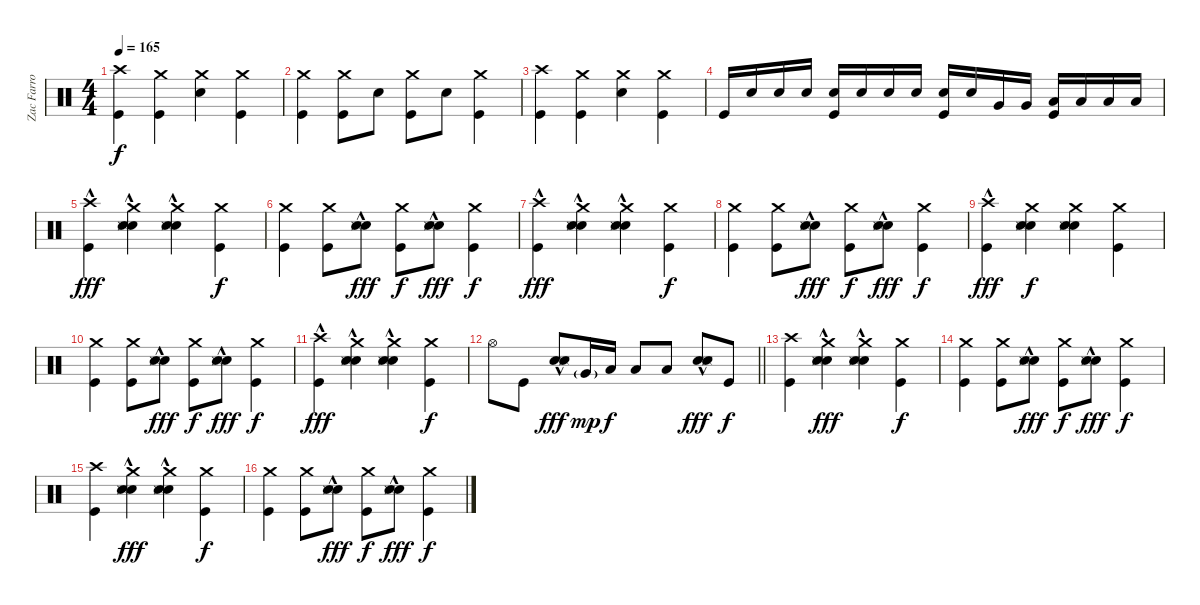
\track ("Zac Farro (Drums)" "Zac Farro ") {instrument percussion}
\staff {score}
\articulation defaults
\ts (4 4)
\tempo 165
\clef neutral
\ks c
("Crash high (hit)" "Kick (hit)").4{dy f} ("Crash medium (hit)" "Kick (hit)").4 ("Crash medium (hit)" "Electric Snare (hit)").4 ("Crash medium (hit)" "Kick (hit)").4 |
("Crash medium (hit)" "Kick (hit)").4 ("Crash medium (hit)" "Kick (hit)").8 "Electric Snare (hit)".8 ("Crash medium (hit)" "Kick (hit)").8 "Electric Snare (hit)".8 ("Crash medium (hit)" "Kick (hit)").4 |
("Crash high (hit)" "Kick (hit)").4 ("Crash medium (hit)" "Kick (hit)").4 ("Crash medium (hit)" "Electric Snare (hit)").4 ("Crash medium (hit)" "Kick (hit)").4 |
"Kick (hit)".16 "Electric Snare (hit)".16 "Electric Snare (hit)".16 "Electric Snare (hit)".16 ("Electric Snare (hit)" "Kick (hit)").16 "Electric Snare (hit)".16 "Electric Snare (hit)".16 "Electric Snare (hit)".16 ("Electric Snare (hit)" "Kick (hit)").16 "Electric Snare (hit)".16 "Very Low Tom (hit)".16 "Very Low Tom (hit)".16 ("Low Floor Tom (hit)" "Kick (hit)").16 "Low Floor Tom (hit)".16 "Low Floor Tom (hit)".16 "Low Floor Tom (hit)".16 |
("Crash high (hit)"{hac} "Kick (hit)"{hac}).4{dy fff} ("Crash medium (hit)"{hac} "Snare (hit) 2"{hac} "Snare (side stick) 3"{hac} "Electric Snare (hit)"{hac}).4 ("Crash medium (hit)"{hac} "Snare (hit) 2"{hac} "Snare (side stick) 3"{hac} "Electric Snare (hit)"{hac}).4 ("Crash medium (hit)" "Kick (hit)").4{dy f} |
("Crash medium (hit)" "Kick (hit)").4 ("Crash medium (hit)" "Kick (hit)").8 ("Snare (hit) 2"{hac} "Snare (side stick) 3"{hac} "Electric Snare (hit)"{hac}).8{dy fff} ("Crash medium (hit)" "Kick (hit)").8{dy f} ("Snare (hit) 2"{hac} "Snare (side stick) 3"{hac} "Electric Snare (hit)"{hac}).8{dy fff} ("Crash medium (hit)" "Kick (hit)").4{dy f} |
("Crash high (hit)"{hac} "Kick (hit)"{hac}).4{dy fff} ("Crash medium (hit)"{hac} "Snare (hit) 2"{hac} "Snare (side stick) 3"{hac} "Electric Snare (hit)"{hac}).4 ("Crash medium (hit)"{hac} "Snare (hit) 2"{hac} "Snare (side stick) 3"{hac} "Electric Snare (hit)"{hac}).4 ("Crash medium (hit)" "Kick (hit)").4{dy f} |
("Crash medium (hit)" "Kick (hit)").4 ("Crash medium (hit)" "Kick (hit)").8 ("Snare (hit) 2"{hac} "Snare (side stick) 3"{hac} "Electric Snare (hit)"{hac}).8{dy fff} ("Crash medium (hit)" "Kick (hit)").8{dy f} ("Snare (hit) 2"{hac} "Snare (side stick) 3"{hac} "Electric Snare (hit)"{hac}).8{dy fff} ("Crash medium (hit)" "Kick (hit)").4{dy f} |
("Crash high (hit)"{hac} "Kick (hit)"{hac}).4{dy fff} ("Crash medium (hit)" "Snare (hit) 2" "Snare (side stick) 3" "Electric Snare (hit)").4{dy f} ("Crash medium (hit)" "Snare (hit) 2" "Snare (side stick) 3" "Electric Snare (hit)").4 ("Crash medium (hit)" "Kick (hit)").4 |
("Crash medium (hit)" "Kick (hit)").4 ("Crash medium (hit)" "Kick (hit)").8 ("Snare (hit) 2"{hac} "Snare (side stick) 3"{hac} "Electric Snare (hit)"{hac}).8{dy fff} ("Crash medium (hit)" "Kick (hit)").8{dy f} ("Snare (hit) 2"{hac} "Snare (side stick) 3"{hac} "Electric Snare (hit)"{hac}).8{dy fff} ("Crash medium (hit)" "Kick (hit)").4{dy f} |
("Crash high (hit)"{hac} "Kick (hit)"{hac}).4{dy fff} ("Crash medium (hit)"{hac} "Snare (hit) 2"{hac} "Snare (side stick) 3"{hac} "Electric Snare (hit)"{hac}).4 ("Crash medium (hit)"{hac} "Snare (hit) 2"{hac} "Snare (side stick) 3"{hac} "Electric Snare (hit)"{hac}).4 ("Crash medium (hit)" "Kick (hit)").4{dy f} |
\barLineRight lightlight "Hi-Hat (open)".8 "Kick (hit)".8
("Snare (hit) 2"{hac} "Snare (side stick) 3"{hac} "Electric Snare (hit)"{hac}).8{dy fff} "Very Low Tom (hit)"{g}.16{dy mp} "Low Floor Tom (hit)".16{dy f} "Low Floor Tom (hit)".8 "Low Floor Tom (hit)".8 ("Snare (hit) 2"{hac} "Snare (side stick) 3"{hac} "Electric Snare (hit)"{hac}).8{dy fff} "Kick (hit)".8{dy f} |
\section ("" "")
("Crash high (hit)" "Kick (hit)").4 ("Crash medium (hit)"{hac} "Snare (hit) 2"{hac} "Snare (side stick) 3"{hac} "Electric Snare (hit)"{hac}).4{dy fff} ("Crash medium (hit)"{hac} "Snare (hit) 2"{hac} "Snare (side stick) 3"{hac} "Electric Snare (hit)"{hac}).4 ("Crash medium (hit)" "Kick (hit)").4{dy f} |
("Crash medium (hit)" "Kick (hit)").4 ("Crash medium (hit)" "Kick (hit)").8 ("Snare (hit) 2"{hac} "Snare (side stick) 3"{hac} "Electric Snare (hit)"{hac}).8{dy fff} ("Crash medium (hit)" "Kick (hit)").8{dy f} ("Snare (hit) 2"{hac} "Snare (side stick) 3"{hac} "Electric Snare (hit)"{hac}).8{dy fff} ("Crash medium (hit)" "Kick (hit)").4{dy f} |
("Crash high (hit)" "Kick (hit)").4 ("Crash medium (hit)"{hac} "Snare (hit) 2"{hac} "Snare (side stick) 3"{hac} "Electric Snare (hit)"{hac}).4{dy fff} ("Crash medium (hit)"{hac} "Snare (hit) 2"{hac} "Snare (side stick) 3"{hac} "Electric Snare (hit)"{hac}).4 ("Crash medium (hit)" "Kick (hit)").4{dy f} |
("Crash medium (hit)" "Kick (hit)").4 ("Crash medium (hit)" "Kick (hit)").8 ("Snare (hit) 2"{hac} "Snare (side stick) 3"{hac} "Electric Snare (hit)"{hac}).8{dy fff} ("Crash medium (hit)" "Kick (hit)").8{dy f} ("Snare (hit) 2"{hac} "Snare (side stick) 3"{hac} "Electric Snare (hit)"{hac}).8{dy fff} ("Crash medium (hit)" "Kick (hit)").4{dy f}
